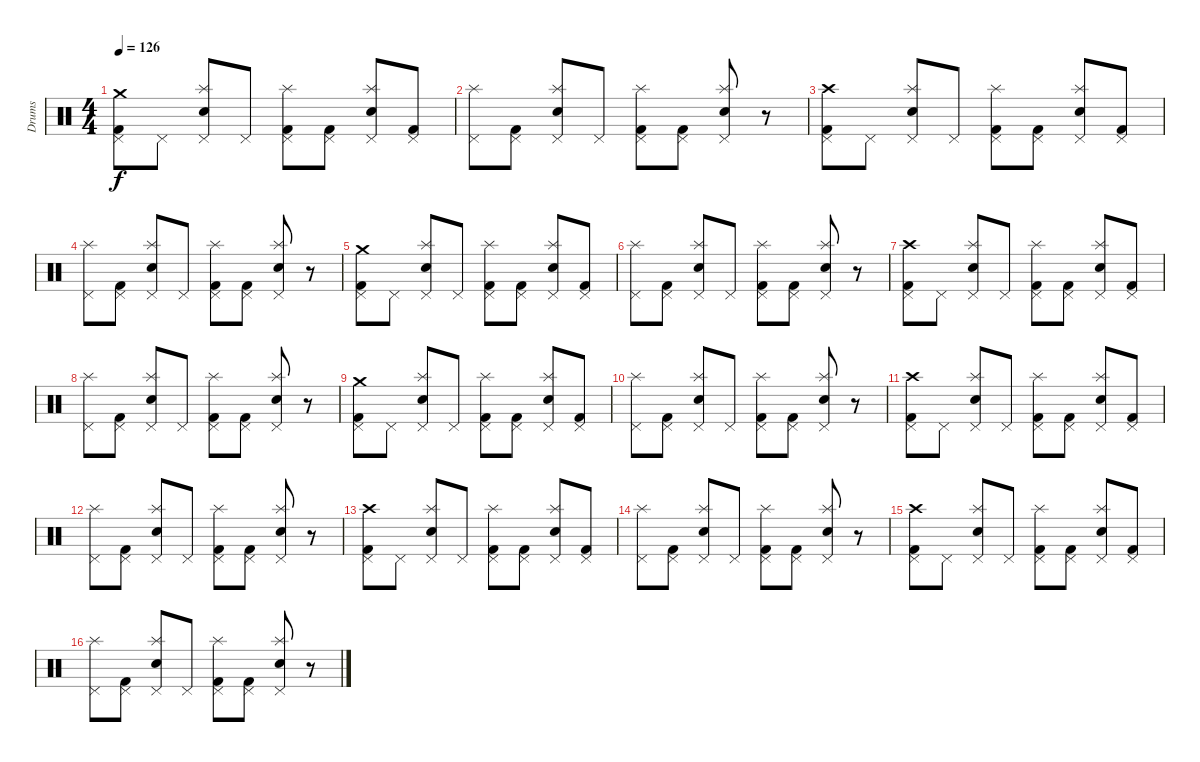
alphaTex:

\track ("Drums" "Drums") {instrument percussion}
\staff {score}
\articulation defaults
\ts (4 4)
\tempo 126
\clef neutral
\ks c
("Pedal Hi-Hat (hit)" "Kick (hit) 2" "Crash medium (hit)").8{dy f} "Pedal Hi-Hat (hit)".8 ("Pedal Hi-Hat (hit)" "Splash (hit)" "Electric Snare (hit)").8 "Pedal Hi-Hat (hit)".8 ("Pedal Hi-Hat (hit)" "Splash (hit)" "Kick (hit) 2").8 ("Pedal Hi-Hat (hit)" "Kick (hit) 2").8 ("Pedal Hi-Hat (hit)" "Splash (hit)" "Electric Snare (hit)").8 ("Pedal Hi-Hat (hit)" "Kick (hit) 2").8 |
("Pedal Hi-Hat (hit)" "Splash (hit)").8 ("Pedal Hi-Hat (hit)" "Kick (hit) 2").8 ("Pedal Hi-Hat (hit)" "Splash (hit)" "Electric Snare (hit)").8 "Pedal Hi-Hat (hit)".8 ("Pedal Hi-Hat (hit)" "Splash (hit)" "Kick (hit) 2").8 ("Pedal Hi-Hat (hit)" "Kick (hit) 2").8 ("Pedal Hi-Hat (hit)" "Splash (hit)" "Electric Snare (hit)").8 r.8 |
("Pedal Hi-Hat (hit)" "Kick (hit) 2" "Crash high (hit)").8 "Pedal Hi-Hat (hit)".8 ("Pedal Hi-Hat (hit)" "Electric Snare (hit)" "Splash (hit)").8 "Pedal Hi-Hat (hit)".8 ("Pedal Hi-Hat (hit)" "Kick (hit) 2" "Splash (hit)").8 ("Kick (hit) 2" "Pedal Hi-Hat (hit)").8 ("Splash (hit)" "Electric Snare (hit)" "Pedal Hi-Hat (hit)").8 ("Pedal Hi-Hat (hit)" "Kick (hit) 2").8 |
("Splash (hit)" "Pedal Hi-Hat (hit)").8 ("Kick (hit) 2" "Pedal Hi-Hat (hit)").8 ("Splash (hit)" "Electric Snare (hit)" "Pedal Hi-Hat (hit)").8 "Pedal Hi-Hat (hit)".8 ("Splash (hit)" "Kick (hit) 2" "Pedal Hi-Hat (hit)").8 ("Pedal Hi-Hat (hit)" "Kick (hit) 2").8 ("Pedal Hi-Hat (hit)" "Electric Snare (hit)" "Splash (hit)").8 r.8 |
("Pedal Hi-Hat (hit)" "Kick (hit) 2" "Crash medium (hit)").8 "Pedal Hi-Hat (hit)".8 ("Pedal Hi-Hat (hit)" "Splash (hit)" "Electric Snare (hit)").8 "Pedal Hi-Hat (hit)".8 ("Pedal Hi-Hat (hit)" "Splash (hit)" "Kick (hit) 2").8 ("Pedal Hi-Hat (hit)" "Kick (hit) 2").8 ("Pedal Hi-Hat (hit)" "Splash (hit)" "Electric Snare (hit)").8 ("Pedal Hi-Hat (hit)" "Kick (hit) 2").8 |
("Pedal Hi-Hat (hit)" "Splash (hit)").8 ("Pedal Hi-Hat (hit)" "Kick (hit) 2").8 ("Pedal Hi-Hat (hit)" "Splash (hit)" "Electric Snare (hit)").8 "Pedal Hi-Hat (hit)".8 ("Pedal Hi-Hat (hit)" "Splash (hit)" "Kick (hit) 2").8 ("Pedal Hi-Hat (hit)" "Kick (hit) 2").8 ("Pedal Hi-Hat (hit)" "Splash (hit)" "Electric Snare (hit)").8 r.8 |
("Pedal Hi-Hat (hit)" "Kick (hit) 2" "Crash high (hit)").8 "Pedal Hi-Hat (hit)".8 ("Pedal Hi-Hat (hit)" "Electric Snare (hit)" "Splash (hit)").8 "Pedal Hi-Hat (hit)".8 ("Pedal Hi-Hat (hit)" "Kick (hit) 2" "Splash (hit)").8 ("Kick (hit) 2" "Pedal Hi-Hat (hit)").8 ("Splash (hit)" "Electric Snare (hit)" "Pedal Hi-Hat (hit)").8 ("Pedal Hi-Hat (hit)" "Kick (hit) 2").8 |
("Splash (hit)" "Pedal Hi-Hat (hit)").8 ("Kick (hit) 2" "Pedal Hi-Hat (hit)").8 ("Splash (hit)" "Electric Snare (hit)" "Pedal Hi-Hat (hit)").8 "Pedal Hi-Hat (hit)".8 ("Splash (hit)" "Kick (hit) 2" "Pedal Hi-Hat (hit)").8 ("Pedal Hi-Hat (hit)" "Kick (hit) 2").8 ("Pedal Hi-Hat (hit)" "Electric Snare (hit)" "Splash (hit)").8 r.8 |
("Pedal Hi-Hat (hit)" "Kick (hit) 2" "Crash medium (hit)").8 "Pedal Hi-Hat (hit)".8 ("Pedal Hi-Hat (hit)" "Splash (hit)" "Electric Snare (hit)").8 "Pedal Hi-Hat (hit)".8 ("Pedal Hi-Hat (hit)" "Splash (hit)" "Kick (hit) 2").8 ("Pedal Hi-Hat (hit)" "Kick (hit) 2").8 ("Pedal Hi-Hat (hit)" "Splash (hit)" "Electric Snare (hit)").8 ("Pedal Hi-Hat (hit)" "Kick (hit) 2").8 |
("Pedal Hi-Hat (hit)" "Splash (hit)").8 ("Pedal Hi-Hat (hit)" "Kick (hit) 2").8 ("Pedal Hi-Hat (hit)" "Splash (hit)" "Electric Snare (hit)").8 "Pedal Hi-Hat (hit)".8 ("Pedal Hi-Hat (hit)" "Splash (hit)" "Kick (hit) 2").8 ("Pedal Hi-Hat (hit)" "Kick (hit) 2").8 ("Pedal Hi-Hat (hit)" "Splash (hit)" "Electric Snare (hit)").8 r.8 |
("Pedal Hi-Hat (hit)" "Kick (hit) 2" "Crash high (hit)").8 "Pedal Hi-Hat (hit)".8 ("Pedal Hi-Hat (hit)" "Electric Snare (hit)" "Splash (hit)").8 "Pedal Hi-Hat (hit)".8 ("Pedal Hi-Hat (hit)" "Kick (hit) 2" "Splash (hit)").8 ("Kick (hit) 2" "Pedal Hi-Hat (hit)").8 ("Splash (hit)" "Electric Snare (hit)" "Pedal Hi-Hat (hit)").8 ("Pedal Hi-Hat (hit)" "Kick (hit) 2").8 |
("Splash (hit)" "Pedal Hi-Hat (hit)").8 ("Kick (hit) 2" "Pedal Hi-Hat (hit)").8 ("Splash (hit)" "Electric Snare (hit)" "Pedal Hi-Hat (hit)").8 "Pedal Hi-Hat (hit)".8 ("Splash (hit)" "Kick (hit) 2" "Pedal Hi-Hat (hit)").8 ("Pedal Hi-Hat (hit)" "Kick (hit) 2").8 ("Pedal Hi-Hat (hit)" "Electric Snare (hit)" "Splash (hit)").8 r.8 |
("Pedal Hi-Hat (hit)" "Kick (hit) 2" "Crash high (hit)").8 "Pedal Hi-Hat (hit)".8 ("Pedal Hi-Hat (hit)" "Electric Snare (hit)" "Splash (hit)").8 "Pedal Hi-Hat (hit)".8 ("Pedal Hi-Hat (hit)" "Kick (hit) 2" "Splash (hit)").8 ("Kick (hit) 2" "Pedal Hi-Hat (hit)").8 ("Splash (hit)" "Electric Snare (hit)" "Pedal Hi-Hat (hit)").8 ("Pedal Hi-Hat (hit)" "Kick (hit) 2").8 |
("Splash (hit)" "Pedal Hi-Hat (hit)").8 ("Kick (hit) 2" "Pedal Hi-Hat (hit)").8 ("Splash (hit)" "Electric Snare (hit)" "Pedal Hi-Hat (hit)").8 "Pedal Hi-Hat (hit)".8 ("Splash (hit)" "Kick (hit) 2" "Pedal Hi-Hat (hit)").8 ("Pedal Hi-Hat (hit)" "Kick (hit) 2").8 ("Pedal Hi-Hat (hit)" "Electric Snare (hit)" "Splash (hit)").8 r.8 |
("Pedal Hi-Hat (hit)" "Kick (hit) 2" "Crash high (hit)").8 "Pedal Hi-Hat (hit)".8 ("Pedal Hi-Hat (hit)" "Electric Snare (hit)" "Splash (hit)").8 "Pedal Hi-Hat (hit)".8 ("Pedal Hi-Hat (hit)" "Kick (hit) 2" "Splash (hit)").8 ("Kick (hit) 2" "Pedal Hi-Hat (hit)").8 ("Splash (hit)" "Electric Snare (hit)" "Pedal Hi-Hat (hit)").8 ("Pedal Hi-Hat (hit)" "Kick (hit) 2").8 |
("Splash (hit)" "Pedal Hi-Hat (hit)").8 ("Kick (hit) 2" "Pedal Hi-Hat (hit)").8 ("Splash (hit)" "Electric Snare (hit)" "Pedal Hi-Hat (hit)").8 "Pedal Hi-Hat (hit)".8 ("Splash (hit)" "Kick (hit) 2" "Pedal Hi-Hat (hit)").8 ("Pedal Hi-Hat (hit)" "Kick (hit) 2").8 ("Pedal Hi-Hat (hit)" "Electric Snare (hit)" "Splash (hit)").8 r.8
